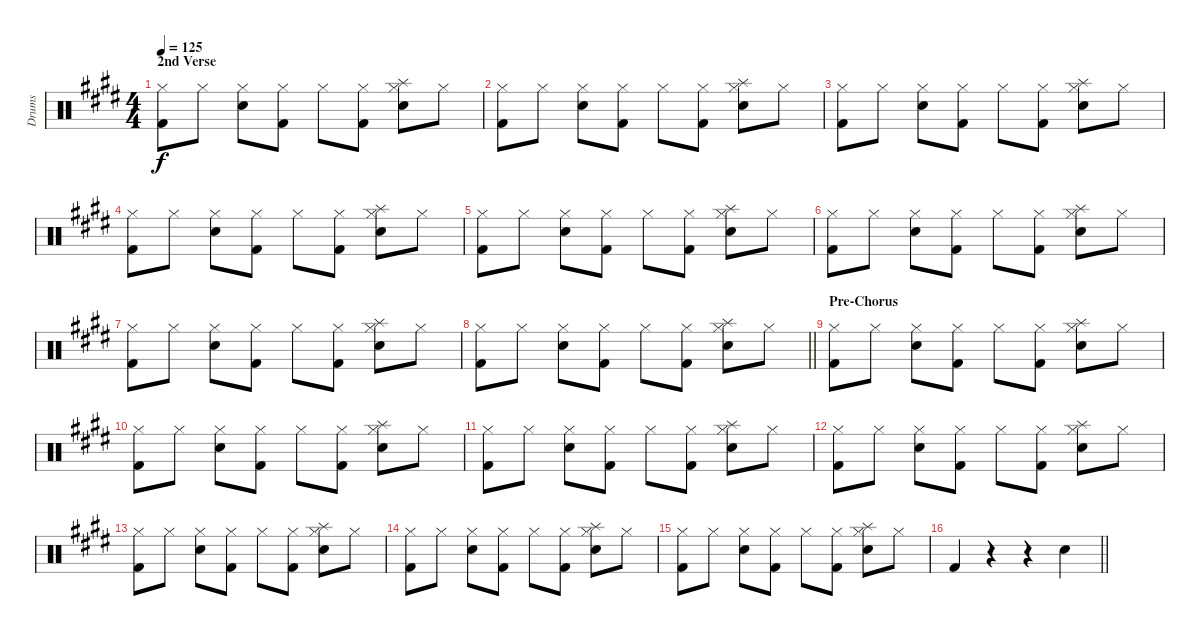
\track ("Drums" "Drums") {instrument percussion}
\staff {score}
\articulation defaults
\ts (4 4)
\section ("" "2nd Verse")
\tempo 125
\clef neutral
\ks c#minor
("Hi-Hat (closed)" "Kick (hit) 2").8{dy f} "Hi-Hat (closed)".8 ("Hi-Hat (closed)" "Snare (hit) 2").8 ("Hi-Hat (closed)" "Kick (hit) 2").8 "Hi-Hat (closed)".8 ("Hi-Hat (closed)" "Kick (hit) 2").8 ("Hi-Hat (closed)" "Snare (hit) 2" "Splash (hit)").8 "Hi-Hat (closed)".8 |
("Hi-Hat (closed)" "Kick (hit) 2").8 "Hi-Hat (closed)".8 ("Hi-Hat (closed)" "Snare (hit) 2").8 ("Hi-Hat (closed)" "Kick (hit) 2").8 "Hi-Hat (closed)".8 ("Hi-Hat (closed)" "Kick (hit) 2").8 ("Hi-Hat (closed)" "Snare (hit) 2" "Splash (hit)").8 "Hi-Hat (closed)".8 |
("Hi-Hat (closed)" "Kick (hit) 2").8 "Hi-Hat (closed)".8 ("Hi-Hat (closed)" "Snare (hit) 2").8 ("Hi-Hat (closed)" "Kick (hit) 2").8 "Hi-Hat (closed)".8 ("Hi-Hat (closed)" "Kick (hit) 2").8 ("Hi-Hat (closed)" "Snare (hit) 2" "Splash (hit)").8 "Hi-Hat (closed)".8 |
("Hi-Hat (closed)" "Kick (hit) 2").8 "Hi-Hat (closed)".8 ("Hi-Hat (closed)" "Snare (hit) 2").8 ("Hi-Hat (closed)" "Kick (hit) 2").8 "Hi-Hat (closed)".8 ("Hi-Hat (closed)" "Kick (hit) 2").8 ("Hi-Hat (closed)" "Snare (hit) 2" "Splash (hit)").8 "Hi-Hat (closed)".8 |
("Hi-Hat (closed)" "Kick (hit) 2").8 "Hi-Hat (closed)".8 ("Hi-Hat (closed)" "Snare (hit) 2").8 ("Hi-Hat (closed)" "Kick (hit) 2").8 "Hi-Hat (closed)".8 ("Hi-Hat (closed)" "Kick (hit) 2").8 ("Hi-Hat (closed)" "Snare (hit) 2" "Splash (hit)").8 "Hi-Hat (closed)".8 |
("Hi-Hat (closed)" "Kick (hit) 2").8 "Hi-Hat (closed)".8 ("Hi-Hat (closed)" "Snare (hit) 2").8 ("Hi-Hat (closed)" "Kick (hit) 2").8 "Hi-Hat (closed)".8 ("Hi-Hat (closed)" "Kick (hit) 2").8 ("Hi-Hat (closed)" "Snare (hit) 2" "Splash (hit)").8 "Hi-Hat (closed)".8 |
("Hi-Hat (closed)" "Kick (hit) 2").8 "Hi-Hat (closed)".8 ("Hi-Hat (closed)" "Snare (hit) 2").8 ("Hi-Hat (closed)" "Kick (hit) 2").8 "Hi-Hat (closed)".8 ("Hi-Hat (closed)" "Kick (hit) 2").8 ("Hi-Hat (closed)" "Snare (hit) 2" "Splash (hit)").8 "Hi-Hat (closed)".8 |
\barLineRight lightlight
("Hi-Hat (closed)" "Kick (hit) 2").8 "Hi-Hat (closed)".8 ("Hi-Hat (closed)" "Snare (hit) 2").8 ("Hi-Hat (closed)" "Kick (hit) 2").8 "Hi-Hat (closed)".8 ("Hi-Hat (closed)" "Kick (hit) 2").8 ("Hi-Hat (closed)" "Snare (hit) 2" "Splash (hit)").8 "Hi-Hat (closed)".8 |
\section ("" "Pre-Chorus")
("Hi-Hat (closed)" "Kick (hit) 2").8 "Hi-Hat (closed)".8 ("Hi-Hat (closed)" "Snare (hit) 2").8 ("Hi-Hat (closed)" "Kick (hit) 2").8 "Hi-Hat (closed)".8 ("Hi-Hat (closed)" "Kick (hit) 2").8 ("Hi-Hat (closed)" "Snare (hit) 2" "Splash (hit)").8 "Hi-Hat (closed)".8 |
("Hi-Hat (closed)" "Kick (hit) 2").8 "Hi-Hat (closed)".8 ("Hi-Hat (closed)" "Snare (hit) 2").8 ("Hi-Hat (closed)" "Kick (hit) 2").8 "Hi-Hat (closed)".8 ("Hi-Hat (closed)" "Kick (hit) 2").8 ("Hi-Hat (closed)" "Snare (hit) 2" "Splash (hit)").8 "Hi-Hat (closed)".8 |
("Hi-Hat (closed)" "Kick (hit) 2").8 "Hi-Hat (closed)".8 ("Hi-Hat (closed)" "Snare (hit) 2").8 ("Hi-Hat (closed)" "Kick (hit) 2").8 "Hi-Hat (closed)".8 ("Hi-Hat (closed)" "Kick (hit) 2").8 ("Hi-Hat (closed)" "Snare (hit) 2" "Splash (hit)").8 "Hi-Hat (closed)".8 |
("Hi-Hat (closed)" "Kick (hit) 2").8 "Hi-Hat (closed)".8 ("Hi-Hat (closed)" "Snare (hit) 2").8 ("Hi-Hat (closed)" "Kick (hit) 2").8 "Hi-Hat (closed)".8 ("Hi-Hat (closed)" "Kick (hit) 2").8 ("Hi-Hat (closed)" "Snare (hit) 2" "Splash (hit)").8 "Hi-Hat (closed)".8 |
("Hi-Hat (closed)" "Kick (hit) 2").8 "Hi-Hat (closed)".8 ("Hi-Hat (closed)" "Snare (hit) 2").8 ("Hi-Hat (closed)" "Kick (hit) 2").8 "Hi-Hat (closed)".8 ("Hi-Hat (closed)" "Kick (hit) 2").8 ("Hi-Hat (closed)" "Snare (hit) 2" "Splash (hit)").8 "Hi-Hat (closed)".8 |
("Hi-Hat (closed)" "Kick (hit) 2").8 "Hi-Hat (closed)".8 ("Hi-Hat (closed)" "Snare (hit) 2").8 ("Hi-Hat (closed)" "Kick (hit) 2").8 "Hi-Hat (closed)".8 ("Hi-Hat (closed)" "Kick (hit) 2").8 ("Hi-Hat (closed)" "Snare (hit) 2" "Splash (hit)").8 "Hi-Hat (closed)".8 |
("Hi-Hat (closed)" "Kick (hit) 2").8 "Hi-Hat (closed)".8 ("Hi-Hat (closed)" "Snare (hit) 2").8 ("Hi-Hat (closed)" "Kick (hit) 2").8 "Hi-Hat (closed)".8 ("Hi-Hat (closed)" "Kick (hit) 2").8 ("Hi-Hat (closed)" "Snare (hit) 2" "Splash (hit)").8 "Hi-Hat (closed)".8 |
\barLineRight lightlight "Kick (hit) 2".4
r.4 r.4 "Snare (hit) 2".4
